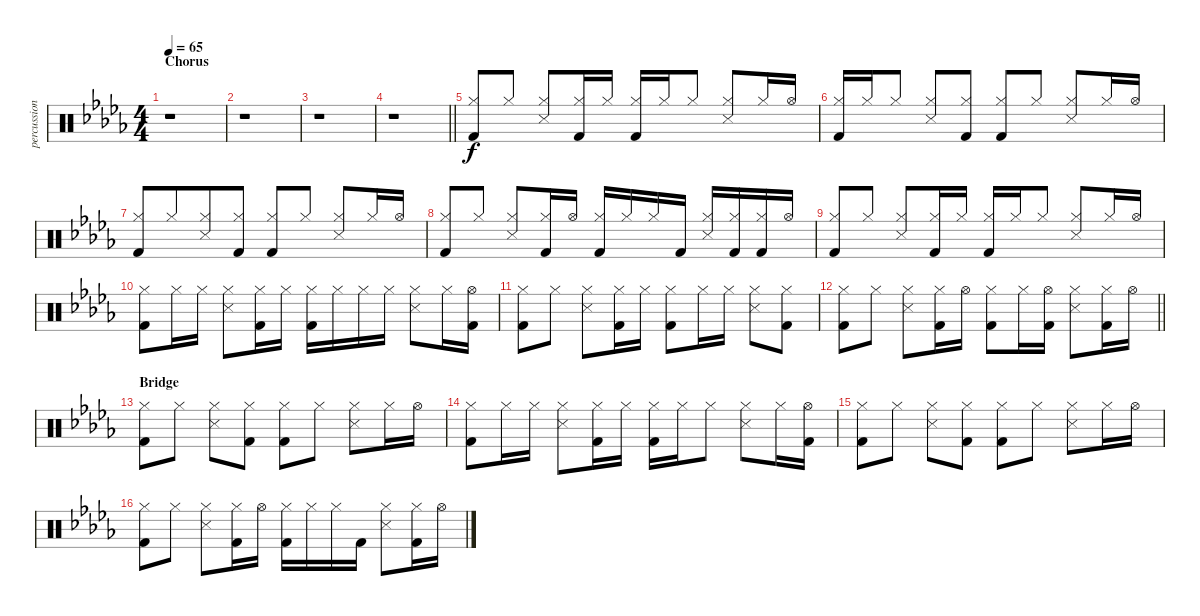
\track ("percussion" "percussion") {instrument percussion}
\staff {score}
\articulation defaults
\ts (4 4)
\section ("" "Chorus")
\tempo 65
\clef neutral
\ks db
r.1{dy f} |
r.1 |
r.1 |
\barLineRight lightlight
r.1 |
("Hi-Hat (closed)" "Kick (hit) 2").8{beam Up} "Hi-Hat (closed)".8{beam Up} ("Snare (side stick) 3" "Hi-Hat (closed)").8{beam Up} ("Hi-Hat (closed)" "Kick (hit) 2").16{beam Up} "Hi-Hat (closed)".16{beam Up} ("Hi-Hat (closed)" "Kick (hit) 2").16{beam Up} "Hi-Hat (closed)".16{beam Up} "Hi-Hat (closed)".8{beam Up} ("Snare (side stick) 3" "Hi-Hat (closed)").8{beam Up} "Hi-Hat (closed)".16{beam Up} "Hi-Hat (open)".16{beam Up} |
("Hi-Hat (closed)" "Kick (hit) 2").16{beam Up} "Hi-Hat (closed)".16{beam Up} "Hi-Hat (closed)".8{beam Up} ("Snare (side stick) 3" "Hi-Hat (closed)").8{beam Up} ("Hi-Hat (closed)" "Kick (hit) 2").8{beam Up} ("Hi-Hat (closed)" "Kick (hit) 2").8{beam Up} "Hi-Hat (closed)".8{beam Up} ("Snare (side stick) 3" "Hi-Hat (closed)").8{beam Up} "Hi-Hat (closed)".16{beam Up} "Hi-Hat (open)".16{beam Up} |
("Hi-Hat (closed)" "Kick (hit) 2").8{beam Up} "Hi-Hat (closed)".8{beam Up beam merge} ("Snare (side stick) 3" "Hi-Hat (closed)").8{beam Up} ("Hi-Hat (closed)" "Kick (hit) 2").8{beam Up} ("Hi-Hat (closed)" "Kick (hit) 2").8{beam Up} "Hi-Hat (closed)".8{beam Up} ("Snare (side stick) 3" "Hi-Hat (closed)").8{beam Up} "Hi-Hat (closed)".16{beam Up} "Hi-Hat (open)".16{beam Up} |
("Hi-Hat (closed)" "Kick (hit) 2").8{beam Up} "Hi-Hat (closed)".8{beam Up} ("Snare (side stick) 3" "Hi-Hat (closed)").8{beam Up} ("Hi-Hat (closed)" "Kick (hit) 2").16{beam Up} "Hi-Hat (open)".16{beam Up} ("Hi-Hat (closed)" "Kick (hit) 2").16{beam Up} "Hi-Hat (closed)".16{beam Up} "Hi-Hat (closed)".16{beam Up} "Kick (hit) 2".16{beam Up} ("Snare (side stick) 3" "Hi-Hat (closed)").16{beam Up} ("Hi-Hat (closed)" "Kick (hit) 2").16{beam Up} ("Hi-Hat (closed)" "Kick (hit) 2").16{beam Up} "Hi-Hat (open)".16{beam Up} |
("Hi-Hat (closed)" "Kick (hit) 2").8{beam Up} "Hi-Hat (closed)".8{beam Up} ("Snare (side stick) 3" "Hi-Hat (closed)").8{beam Up} ("Hi-Hat (closed)" "Kick (hit) 2").16{beam Up} "Hi-Hat (closed)".16{beam Up} ("Hi-Hat (closed)" "Kick (hit) 2").16{beam Up} "Hi-Hat (closed)".16{beam Up} "Hi-Hat (closed)".8{beam Up} ("Snare (side stick) 3" "Hi-Hat (closed)").8{beam Up} "Hi-Hat (closed)".16{beam Up} "Hi-Hat (open)".16{beam Up} |
("Hi-Hat (closed)" "Kick (hit) 2").8 "Hi-Hat (closed)".16 "Hi-Hat (closed)".16 ("Snare (side stick) 3" "Hi-Hat (closed)").8 ("Hi-Hat (closed)" "Kick (hit) 2").16 "Hi-Hat (closed)".16 ("Hi-Hat (closed)" "Kick (hit) 2").16 "Hi-Hat (closed)".16 "Hi-Hat (closed)".16 "Hi-Hat (closed)".16 ("Snare (side stick) 3" "Hi-Hat (closed)").8 "Hi-Hat (closed)".16 ("Hi-Hat (open)" "Kick (hit) 2").16 |
("Hi-Hat (closed)" "Kick (hit) 2").8 "Hi-Hat (closed)".8 ("Snare (side stick) 3" "Hi-Hat (closed)").8 ("Hi-Hat (closed)" "Kick (hit) 2").16 "Hi-Hat (closed)".16 ("Hi-Hat (closed)" "Kick (hit) 2").8 "Hi-Hat (closed)".16 "Hi-Hat (closed)".16 ("Snare (side stick) 3" "Hi-Hat (closed)").8 ("Hi-Hat (closed)" "Kick (hit) 2").8 |
\barLineRight lightlight
("Hi-Hat (closed)" "Kick (hit) 2").8 "Hi-Hat (closed)".8 ("Snare (side stick) 3" "Hi-Hat (closed)").8 ("Hi-Hat (closed)" "Kick (hit) 2").16 "Hi-Hat (open)".16 ("Hi-Hat (closed)" "Kick (hit) 2").8 "Hi-Hat (closed)".16 ("Hi-Hat (open)" "Kick (hit) 2").16 ("Snare (side stick) 3" "Hi-Hat (closed)").8 ("Hi-Hat (closed)" "Kick (hit) 2").16 "Hi-Hat (open)".16 |
\section ("" "Bridge")
("Hi-Hat (closed)" "Kick (hit) 2").8 "Hi-Hat (closed)".8 ("Snare (side stick) 3" "Hi-Hat (closed)").8 ("Hi-Hat (closed)" "Kick (hit) 2").8 ("Hi-Hat (closed)" "Kick (hit) 2").8 "Hi-Hat (closed)".8 ("Snare (side stick) 3" "Hi-Hat (closed)").8 "Hi-Hat (closed)".16 "Hi-Hat (open)".16 |
("Hi-Hat (closed)" "Kick (hit) 2").8 "Hi-Hat (closed)".16 "Hi-Hat (closed)".16 ("Snare (side stick) 3" "Hi-Hat (closed)").8 ("Hi-Hat (closed)" "Kick (hit) 2").16 "Hi-Hat (closed)".16 ("Hi-Hat (closed)" "Kick (hit) 2").16 "Hi-Hat (closed)".16 "Hi-Hat (closed)".8 ("Snare (side stick) 3" "Hi-Hat (closed)").8 "Hi-Hat (closed)".16 ("Hi-Hat (open)" "Kick (hit) 2").16 |
("Hi-Hat (closed)" "Kick (hit) 2").8 "Hi-Hat (closed)".8 ("Snare (side stick) 3" "Hi-Hat (closed)").8 ("Hi-Hat (closed)" "Kick (hit) 2").8 ("Hi-Hat (closed)" "Kick (hit) 2").8 "Hi-Hat (closed)".8 ("Snare (side stick) 3" "Hi-Hat (closed)").8 "Hi-Hat (closed)".16 "Hi-Hat (open)".16 |
("Hi-Hat (closed)" "Kick (hit) 2").8 "Hi-Hat (closed)".8 ("Snare (side stick) 3" "Hi-Hat (closed)").8 ("Hi-Hat (closed)" "Kick (hit) 2").16 "Hi-Hat (open)".16 ("Hi-Hat (closed)" "Kick (hit) 2").16 "Hi-Hat (closed)".16 "Hi-Hat (closed)".16 "Kick (hit) 2".16 ("Snare (side stick) 3" "Hi-Hat (closed)").8 ("Hi-Hat (closed)" "Kick (hit) 2").16 "Hi-Hat (open)".16
